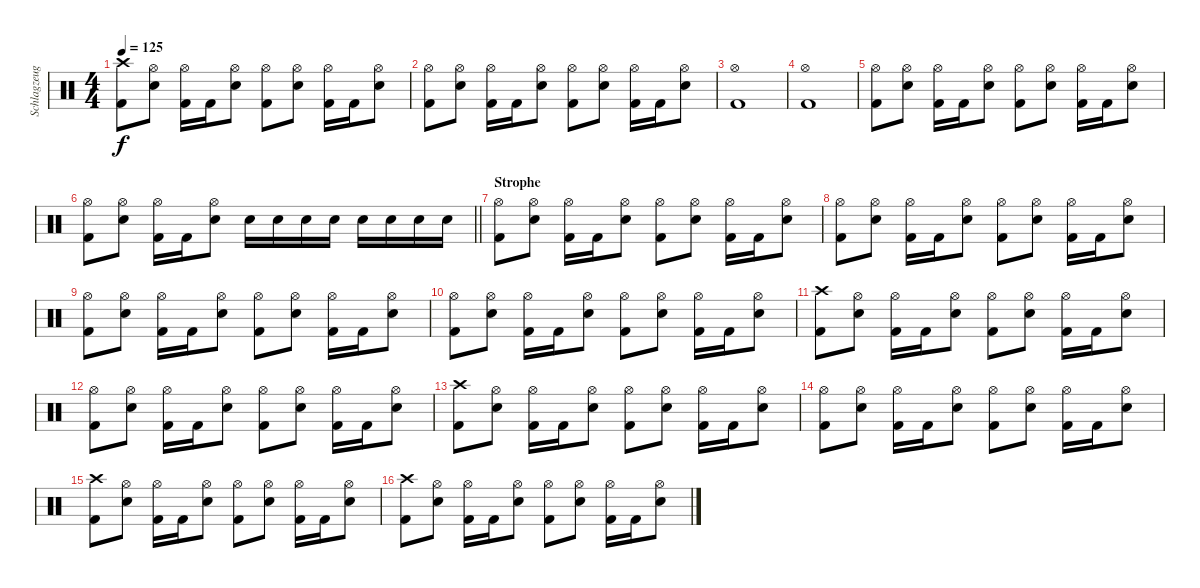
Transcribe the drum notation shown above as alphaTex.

\track ("Schlagzeug" "Schlagzeug") {instrument percussion}
\staff {score}
\articulation defaults
\ts (4 4)
\tempo 125
\clef neutral
\ks c
("Crash high (hit)" "Kick (hit) 2").8{dy f} ("Hi-Hat (open)" "Electric Snare (hit)").8 ("Hi-Hat (open)" "Kick (hit) 2").16 "Kick (hit) 2".16 ("Hi-Hat (open)" "Electric Snare (hit)").8 ("Hi-Hat (open)" "Kick (hit) 2").8 ("Hi-Hat (open)" "Electric Snare (hit)").8 ("Hi-Hat (open)" "Kick (hit) 2").16 "Kick (hit) 2".16 ("Hi-Hat (open)" "Electric Snare (hit)").8 |
("Hi-Hat (open)" "Kick (hit) 2").8 ("Hi-Hat (open)" "Electric Snare (hit)").8 ("Hi-Hat (open)" "Kick (hit) 2").16 "Kick (hit) 2".16 ("Hi-Hat (open)" "Electric Snare (hit)").8 ("Hi-Hat (open)" "Kick (hit) 2").8 ("Hi-Hat (open)" "Electric Snare (hit)").8 ("Hi-Hat (open)" "Kick (hit) 2").16 "Kick (hit) 2".16 ("Hi-Hat (open)" "Electric Snare (hit)").8 |
("Hi-Hat (open)" "Kick (hit) 2").1 |
("Hi-Hat (open)" "Kick (hit) 2").1 |
("Hi-Hat (open)" "Kick (hit) 2").8 ("Hi-Hat (open)" "Electric Snare (hit)").8 ("Hi-Hat (open)" "Kick (hit) 2").16 "Kick (hit) 2".16 ("Hi-Hat (open)" "Electric Snare (hit)").8 ("Hi-Hat (open)" "Kick (hit) 2").8 ("Hi-Hat (open)" "Electric Snare (hit)").8 ("Hi-Hat (open)" "Kick (hit) 2").16 "Kick (hit) 2".16 ("Hi-Hat (open)" "Electric Snare (hit)").8 |
\barLineRight lightlight
("Hi-Hat (open)" "Kick (hit) 2").8 ("Hi-Hat (open)" "Electric Snare (hit)").8 ("Hi-Hat (open)" "Kick (hit) 2").16 "Kick (hit) 2".16 ("Hi-Hat (open)" "Electric Snare (hit)").8 "Electric Snare (hit)".16 "Electric Snare (hit)".16 "Electric Snare (hit)".16 "Electric Snare (hit)".16 "Electric Snare (hit)".16 "Electric Snare (hit)".16 "Electric Snare (hit)".16 "Electric Snare (hit)".16 |
\section ("" "Strophe")
("Hi-Hat (open)" "Kick (hit) 2").8 ("Hi-Hat (open)" "Electric Snare (hit)").8 ("Hi-Hat (open)" "Kick (hit) 2").16 "Kick (hit) 2".16 ("Hi-Hat (open)" "Electric Snare (hit)").8 ("Hi-Hat (open)" "Kick (hit) 2").8 ("Hi-Hat (open)" "Electric Snare (hit)").8 ("Hi-Hat (open)" "Kick (hit) 2").16 "Kick (hit) 2".16 ("Hi-Hat (open)" "Electric Snare (hit)").8 |
("Hi-Hat (open)" "Kick (hit) 2").8 ("Hi-Hat (open)" "Electric Snare (hit)").8 ("Hi-Hat (open)" "Kick (hit) 2").16 "Kick (hit) 2".16 ("Hi-Hat (open)" "Electric Snare (hit)").8 ("Hi-Hat (open)" "Kick (hit) 2").8 ("Hi-Hat (open)" "Electric Snare (hit)").8 ("Hi-Hat (open)" "Kick (hit) 2").16 "Kick (hit) 2".16 ("Hi-Hat (open)" "Electric Snare (hit)").8 |
("Hi-Hat (open)" "Kick (hit) 2").8 ("Hi-Hat (open)" "Electric Snare (hit)").8 ("Hi-Hat (open)" "Kick (hit) 2").16 "Kick (hit) 2".16 ("Hi-Hat (open)" "Electric Snare (hit)").8 ("Hi-Hat (open)" "Kick (hit) 2").8 ("Hi-Hat (open)" "Electric Snare (hit)").8 ("Hi-Hat (open)" "Kick (hit) 2").16 "Kick (hit) 2".16 ("Hi-Hat (open)" "Electric Snare (hit)").8 |
("Hi-Hat (open)" "Kick (hit) 2").8 ("Hi-Hat (open)" "Electric Snare (hit)").8 ("Hi-Hat (open)" "Kick (hit) 2").16 "Kick (hit) 2".16 ("Hi-Hat (open)" "Electric Snare (hit)").8 ("Hi-Hat (open)" "Kick (hit) 2").8 ("Hi-Hat (open)" "Electric Snare (hit)").8 ("Hi-Hat (open)" "Kick (hit) 2").16 "Kick (hit) 2".16 ("Hi-Hat (open)" "Electric Snare (hit)").8 |
("Crash high (hit)" "Kick (hit) 2").8 ("Hi-Hat (open)" "Electric Snare (hit)").8 ("Hi-Hat (open)" "Kick (hit) 2").16 "Kick (hit) 2".16 ("Hi-Hat (open)" "Electric Snare (hit)").8 ("Hi-Hat (open)" "Kick (hit) 2").8 ("Hi-Hat (open)" "Electric Snare (hit)").8 ("Hi-Hat (open)" "Kick (hit) 2").16 "Kick (hit) 2".16 ("Hi-Hat (open)" "Electric Snare (hit)").8 |
("Hi-Hat (open)" "Kick (hit) 2").8 ("Hi-Hat (open)" "Electric Snare (hit)").8 ("Hi-Hat (open)" "Kick (hit) 2").16 "Kick (hit) 2".16 ("Hi-Hat (open)" "Electric Snare (hit)").8 ("Hi-Hat (open)" "Kick (hit) 2").8 ("Hi-Hat (open)" "Electric Snare (hit)").8 ("Hi-Hat (open)" "Kick (hit) 2").16 "Kick (hit) 2".16 ("Hi-Hat (open)" "Electric Snare (hit)").8 |
("Crash high (hit)" "Kick (hit) 2").8 ("Hi-Hat (open)" "Electric Snare (hit)").8 ("Hi-Hat (open)" "Kick (hit) 2").16 "Kick (hit) 2".16 ("Hi-Hat (open)" "Electric Snare (hit)").8 ("Hi-Hat (open)" "Kick (hit) 2").8 ("Hi-Hat (open)" "Electric Snare (hit)").8 ("Hi-Hat (open)" "Kick (hit) 2").16 "Kick (hit) 2".16 ("Hi-Hat (open)" "Electric Snare (hit)").8 |
("Hi-Hat (open)" "Kick (hit) 2").8 ("Hi-Hat (open)" "Electric Snare (hit)").8 ("Hi-Hat (open)" "Kick (hit) 2").16 "Kick (hit) 2".16 ("Hi-Hat (open)" "Electric Snare (hit)").8 ("Hi-Hat (open)" "Kick (hit) 2").8 ("Hi-Hat (open)" "Electric Snare (hit)").8 ("Hi-Hat (open)" "Kick (hit) 2").16 "Kick (hit) 2".16 ("Hi-Hat (open)" "Electric Snare (hit)").8 |
("Crash high (hit)" "Kick (hit) 2").8 ("Hi-Hat (open)" "Electric Snare (hit)").8 ("Hi-Hat (open)" "Kick (hit) 2").16 "Kick (hit) 2".16 ("Hi-Hat (open)" "Electric Snare (hit)").8 ("Hi-Hat (open)" "Kick (hit) 2").8 ("Hi-Hat (open)" "Electric Snare (hit)").8 ("Hi-Hat (open)" "Kick (hit) 2").16 "Kick (hit) 2".16 ("Hi-Hat (open)" "Electric Snare (hit)").8 |
("Crash high (hit)" "Kick (hit) 2").8 ("Hi-Hat (open)" "Electric Snare (hit)").8 ("Hi-Hat (open)" "Kick (hit) 2").16 "Kick (hit) 2".16 ("Hi-Hat (open)" "Electric Snare (hit)").8 ("Hi-Hat (open)" "Kick (hit) 2").8 ("Hi-Hat (open)" "Electric Snare (hit)").8 ("Hi-Hat (open)" "Kick (hit) 2").16 "Kick (hit) 2".16 ("Hi-Hat (open)" "Electric Snare (hit)").8
